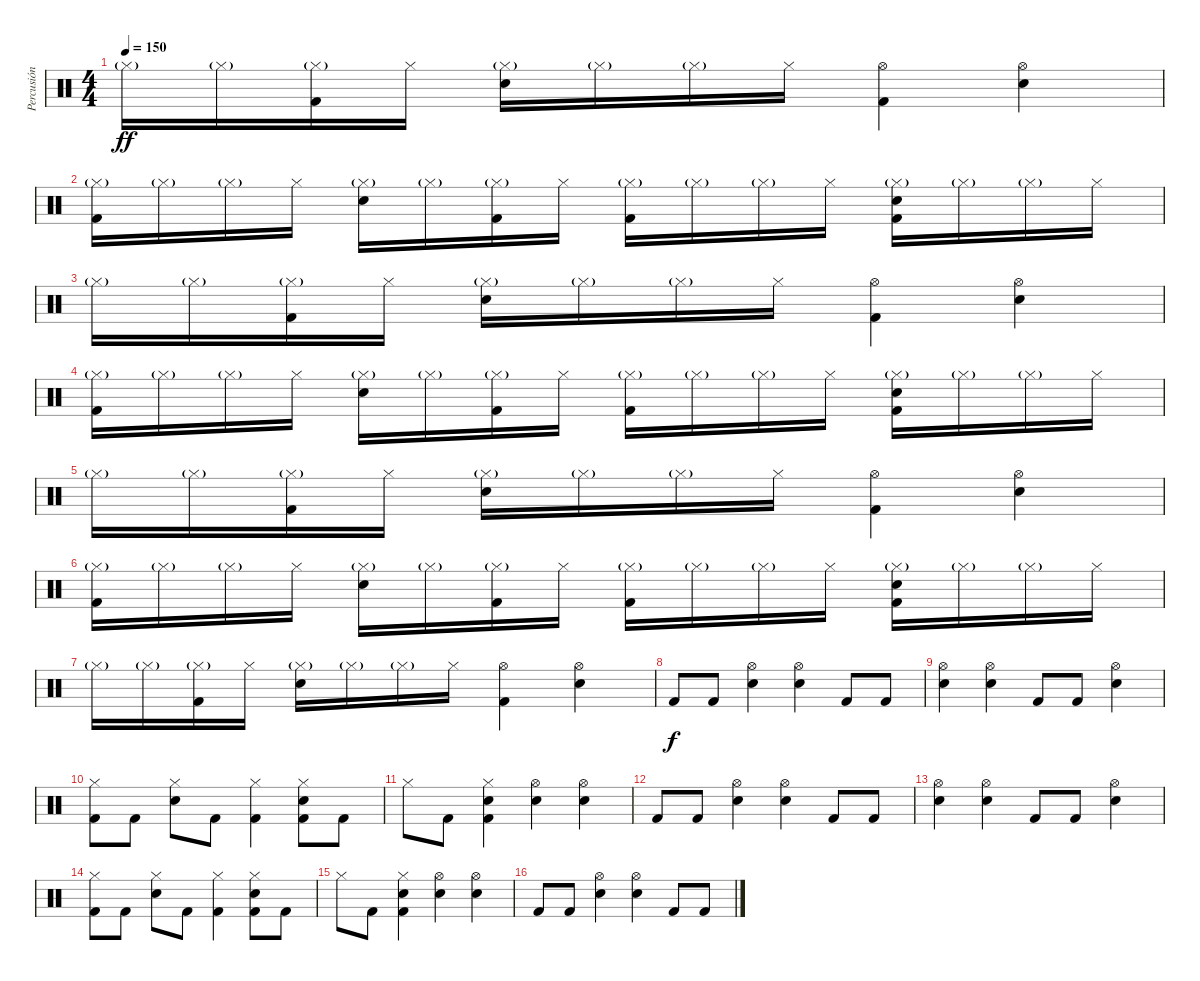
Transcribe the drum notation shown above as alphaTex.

\track ("Percusión" "Percusión") {instrument percussion}
\staff {score}
\articulation defaults
\ts (4 4)
\tempo 150
\clef neutral
\ks c "Hi-Hat (closed)"{g}.16{dy ff} "Hi-Hat (closed)"{g}.16
("Hi-Hat (closed)"{g} "Kick (hit) 2").16 "Hi-Hat (closed)".16 ("Hi-Hat (closed)"{g} "Electric Snare (hit)").16 "Hi-Hat (closed)"{g}.16 "Hi-Hat (closed)"{g}.16 "Hi-Hat (closed)".16 ("Hi-Hat (open)" "Kick (hit) 2").4 ("Hi-Hat (open)" "Electric Snare (hit)").4 |
("Hi-Hat (closed)"{g} "Kick (hit) 2").16 "Hi-Hat (closed)"{g}.16 "Hi-Hat (closed)"{g}.16 "Hi-Hat (closed)".16 ("Hi-Hat (closed)"{g} "Electric Snare (hit)").16 "Hi-Hat (closed)"{g}.16 ("Hi-Hat (closed)"{g} "Kick (hit) 2").16 "Hi-Hat (closed)".16 ("Hi-Hat (closed)"{g} "Kick (hit) 2").16 "Hi-Hat (closed)"{g}.16 "Hi-Hat (closed)"{g}.16 "Hi-Hat (closed)".16 ("Hi-Hat (closed)"{g} "Kick (hit) 2" "Electric Snare (hit)").16 "Hi-Hat (closed)"{g}.16 "Hi-Hat (closed)"{g}.16 "Hi-Hat (closed)".16 |
"Hi-Hat (closed)"{g}.16 "Hi-Hat (closed)"{g}.16 ("Hi-Hat (closed)"{g} "Kick (hit) 2").16 "Hi-Hat (closed)".16 ("Hi-Hat (closed)"{g} "Electric Snare (hit)").16 "Hi-Hat (closed)"{g}.16 "Hi-Hat (closed)"{g}.16 "Hi-Hat (closed)".16 ("Hi-Hat (open)" "Kick (hit) 2").4 ("Hi-Hat (open)" "Electric Snare (hit)").4 |
("Hi-Hat (closed)"{g} "Kick (hit) 2").16 "Hi-Hat (closed)"{g}.16 "Hi-Hat (closed)"{g}.16 "Hi-Hat (closed)".16 ("Hi-Hat (closed)"{g} "Electric Snare (hit)").16 "Hi-Hat (closed)"{g}.16 ("Hi-Hat (closed)"{g} "Kick (hit) 2").16 "Hi-Hat (closed)".16 ("Hi-Hat (closed)"{g} "Kick (hit) 2").16 "Hi-Hat (closed)"{g}.16 "Hi-Hat (closed)"{g}.16 "Hi-Hat (closed)".16 ("Hi-Hat (closed)"{g} "Kick (hit) 2" "Electric Snare (hit)").16 "Hi-Hat (closed)"{g}.16 "Hi-Hat (closed)"{g}.16 "Hi-Hat (closed)".16 |
"Hi-Hat (closed)"{g}.16 "Hi-Hat (closed)"{g}.16 ("Hi-Hat (closed)"{g} "Kick (hit) 2").16 "Hi-Hat (closed)".16 ("Hi-Hat (closed)"{g} "Electric Snare (hit)").16 "Hi-Hat (closed)"{g}.16 "Hi-Hat (closed)"{g}.16 "Hi-Hat (closed)".16 ("Hi-Hat (open)" "Kick (hit) 2").4 ("Hi-Hat (open)" "Electric Snare (hit)").4 |
("Hi-Hat (closed)"{g} "Kick (hit) 2").16 "Hi-Hat (closed)"{g}.16 "Hi-Hat (closed)"{g}.16 "Hi-Hat (closed)".16 ("Hi-Hat (closed)"{g} "Electric Snare (hit)").16 "Hi-Hat (closed)"{g}.16 ("Hi-Hat (closed)"{g} "Kick (hit) 2").16 "Hi-Hat (closed)".16 ("Hi-Hat (closed)"{g} "Kick (hit) 2").16 "Hi-Hat (closed)"{g}.16 "Hi-Hat (closed)"{g}.16 "Hi-Hat (closed)".16 ("Hi-Hat (closed)"{g} "Kick (hit) 2" "Electric Snare (hit)").16 "Hi-Hat (closed)"{g}.16 "Hi-Hat (closed)"{g}.16 "Hi-Hat (closed)".16 |
"Hi-Hat (closed)"{g}.16 "Hi-Hat (closed)"{g}.16 ("Hi-Hat (closed)"{g} "Kick (hit) 2").16 "Hi-Hat (closed)".16 ("Hi-Hat (closed)"{g} "Electric Snare (hit)").16 "Hi-Hat (closed)"{g}.16 "Hi-Hat (closed)"{g}.16 "Hi-Hat (closed)".16 ("Hi-Hat (open)" "Kick (hit) 2").4 ("Hi-Hat (open)" "Electric Snare (hit)").4 |
"Kick (hit) 2".8{dy f} "Kick (hit) 2".8 ("Hi-Hat (open)" "Electric Snare (hit)").4 ("Hi-Hat (open)" "Electric Snare (hit)").4 "Kick (hit) 2".8 "Kick (hit) 2".8 |
("Hi-Hat (open)" "Electric Snare (hit)").4 ("Hi-Hat (open)" "Electric Snare (hit)").4 "Kick (hit) 2".8 "Kick (hit) 2".8 ("Hi-Hat (open)" "Electric Snare (hit)").4 |
("Hi-Hat (closed)" "Kick (hit) 2").8 "Kick (hit) 2".8 ("Hi-Hat (closed)" "Electric Snare (hit)").8 "Kick (hit) 2".8 ("Hi-Hat (closed)" "Kick (hit) 2").4 ("Hi-Hat (closed)" "Kick (hit) 2" "Electric Snare (hit)").8 "Kick (hit) 2".8 |
"Hi-Hat (closed)".8 "Kick (hit) 2".8 ("Hi-Hat (closed)" "Kick (hit) 2" "Electric Snare (hit)").4 ("Hi-Hat (open)" "Electric Snare (hit)").4 ("Hi-Hat (open)" "Electric Snare (hit)").4 |
"Kick (hit) 2".8 "Kick (hit) 2".8 ("Hi-Hat (open)" "Electric Snare (hit)").4 ("Hi-Hat (open)" "Electric Snare (hit)").4 "Kick (hit) 2".8 "Kick (hit) 2".8 |
("Hi-Hat (open)" "Electric Snare (hit)").4 ("Hi-Hat (open)" "Electric Snare (hit)").4 "Kick (hit) 2".8 "Kick (hit) 2".8 ("Hi-Hat (open)" "Electric Snare (hit)").4 |
("Hi-Hat (closed)" "Kick (hit) 2").8 "Kick (hit) 2".8 ("Hi-Hat (closed)" "Electric Snare (hit)").8 "Kick (hit) 2".8 ("Hi-Hat (closed)" "Kick (hit) 2").4 ("Hi-Hat (closed)" "Kick (hit) 2" "Electric Snare (hit)").8 "Kick (hit) 2".8 |
"Hi-Hat (closed)".8 "Kick (hit) 2".8 ("Hi-Hat (closed)" "Kick (hit) 2" "Electric Snare (hit)").4 ("Hi-Hat (open)" "Electric Snare (hit)").4 ("Hi-Hat (open)" "Electric Snare (hit)").4 |
"Kick (hit) 2".8 "Kick (hit) 2".8 ("Hi-Hat (open)" "Electric Snare (hit)").4 ("Hi-Hat (open)" "Electric Snare (hit)").4 "Kick (hit) 2".8 "Kick (hit) 2".8
